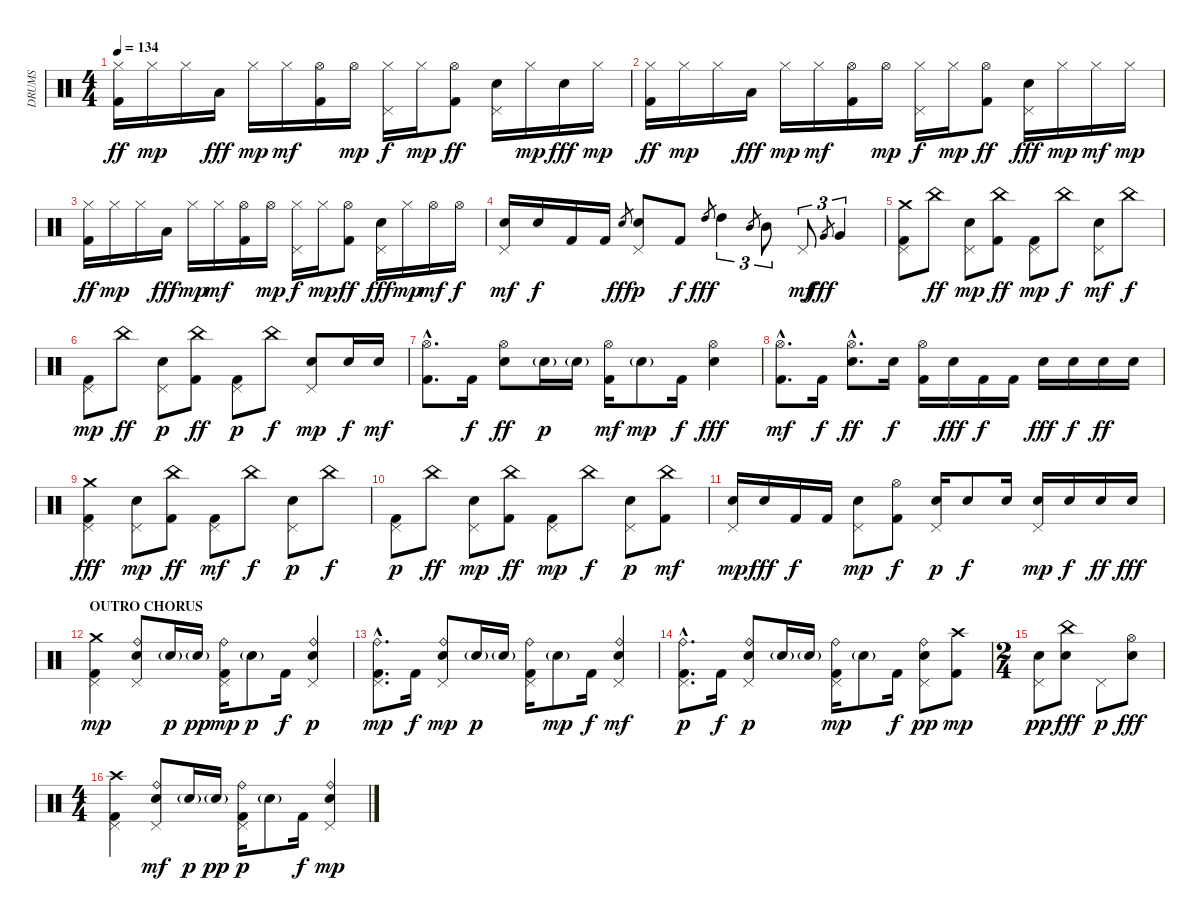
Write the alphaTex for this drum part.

\track ("DRUMS" "DRUMS") {instrument percussion}
\staff {score}
\articulation defaults
\ts (4 4)
\tempo 134
\clef neutral
\ks c
("Hi-Hat (closed)" "Kick (hit) 2").16{dy ff} "Hi-Hat (closed)".16{dy mp} "Hi-Hat (closed)".16 "Low Floor Tom (hit)".16{dy fff balance 0} "Hi-Hat (closed)".16{dy mp balance 8} "Hi-Hat (closed)".16{dy mf} ("Hi-Hat (open)" "Kick (hit) 2").16 "Hi-Hat (open)".16{dy mp} ("Hi-Hat (closed)" "Pedal Hi-Hat (hit)").16{dy f} "Hi-Hat (closed)".16{dy mp} ("Hi-Hat (open)" "Kick (hit) 2").8{dy ff} ("Electric Snare (hit)" "Pedal Hi-Hat (hit)").16 "Hi-Hat (closed)".16{dy mp} "Electric Snare (hit)".16{dy fff} "Hi-Hat (closed)".16{dy mp} |
("Hi-Hat (closed)" "Kick (hit) 2").16{dy ff} "Hi-Hat (closed)".16{dy mp} "Hi-Hat (closed)".16 "Low Floor Tom (hit)".16{dy fff balance 0} "Hi-Hat (closed)".16{dy mp balance 8} "Hi-Hat (closed)".16{dy mf} ("Hi-Hat (open)" "Kick (hit) 2").16 "Hi-Hat (open)".16{dy mp} ("Hi-Hat (closed)" "Pedal Hi-Hat (hit)").16{dy f} "Hi-Hat (closed)".16{dy mp} ("Hi-Hat (open)" "Kick (hit) 2").8{dy ff} ("Electric Snare (hit)" "Pedal Hi-Hat (hit)").16{dy fff} "Hi-Hat (closed)".16{dy mp} "Hi-Hat (closed)".16{dy mf} "Hi-Hat (closed)".16{dy mp} |
("Hi-Hat (closed)" "Kick (hit) 2").16{dy ff} "Hi-Hat (closed)".16{dy mp} "Hi-Hat (closed)".16 "Low Floor Tom (hit)".16{dy fff balance 0} "Hi-Hat (closed)".16{dy mp balance 8} "Hi-Hat (closed)".16{dy mf} ("Hi-Hat (open)" "Kick (hit) 2").16 "Hi-Hat (open)".16{dy mp} ("Hi-Hat (closed)" "Pedal Hi-Hat (hit)").16{dy f} "Hi-Hat (closed)".16{dy mp} ("Hi-Hat (open)" "Kick (hit) 2").8{dy ff} ("Electric Snare (hit)" "Pedal Hi-Hat (hit)").16{dy fff} "Hi-Hat (closed)".16{dy mp} "Hi-Hat (open)".16{dy mf} "Hi-Hat (open)".16{dy f} |
("Electric Snare (hit)" "Pedal Hi-Hat (hit)").16{dy mf} "Electric Snare (hit)".16{dy f} "Kick (hit) 2".16 "Kick (hit) 2".16 "Electric Snare (hit)"{sl}.8{gr dy fff} ("Electric Snare (hit)" "Pedal Hi-Hat (hit)").8{dy p} "Kick (hit) 2".8{dy f} "High Tom (hit)"{sl}.8{gr dy fff} "High Tom (hit)".4{tu (3 2)} "Mid Tom (hit)"{sl}.8{gr} "Mid Tom (hit)".8{tu (3 2)} "Pedal Hi-Hat (hit)".8{tu (3 2) dy mf} "Very Low Tom (hit)"{sl}.8{gr dy fff} "Very Low Tom (hit)".4{tu (3 2)} |
("Crash medium (hit)" "Pedal Hi-Hat (hit)" "Kick (hit) 2").8 "China (hit)".8{dy ff} ("Electric Snare (hit)" "Pedal Hi-Hat (hit)").8{dy mp} ("China (hit)" "Kick (hit) 2").8{dy ff} ("Pedal Hi-Hat (hit)" "Kick (hit) 2").8{dy mp} "China (hit)".8{dy f} ("Electric Snare (hit)" "Pedal Hi-Hat (hit)").8{dy mf} "China (hit)".8{dy f} |
("Pedal Hi-Hat (hit)" "Kick (hit) 2").8{dy mp} "China (hit)".8{dy ff} ("Electric Snare (hit)" "Pedal Hi-Hat (hit)").8{dy p} ("China (hit)" "Kick (hit) 2").8{dy ff} ("Pedal Hi-Hat (hit)" "Kick (hit) 2").8{dy p} "China (hit)".8{dy f} ("Electric Snare (hit)" "Pedal Hi-Hat (hit)").8{dy mp} "Electric Snare (hit)".16{dy f} "Electric Snare (hit)".16{dy mf} |
("Hi-Hat (open)"{hac} "Kick (hit) 2"{hac}).8{d} "Kick (hit) 2".16{dy f} ("Hi-Hat (open)" "Electric Snare (hit)").8{dy ff} "Electric Snare (hit)"{g}.16{dy p} "Electric Snare (hit)"{g}.16 ("Hi-Hat (open)" "Kick (hit) 2").16{dy mf} "Electric Snare (hit)"{g}.8{dy mp} "Kick (hit) 2".16{dy f} ("Hi-Hat (open)" "Electric Snare (hit)").4{dy fff} |
("Hi-Hat (open)"{hac} "Kick (hit) 2"{hac}).8{d dy mf} "Kick (hit) 2".16{dy f} ("Hi-Hat (open)"{hac} "Electric Snare (hit)"{hac}).8{d dy ff} "Electric Snare (hit)".16{dy f} ("Hi-Hat (open)" "Kick (hit) 2").16 "Electric Snare (hit)".16{dy fff} "Kick (hit) 2".16{dy f} "Kick (hit) 2".16 "Electric Snare (hit)".16{dy fff} "Electric Snare (hit)".16{dy f} "Electric Snare (hit)".16{dy ff} "Electric Snare (hit)".16 |
("Crash medium (hit)" "Pedal Hi-Hat (hit)" "Kick (hit) 2").4{dy fff} ("Electric Snare (hit)" "Pedal Hi-Hat (hit)").8{dy mp} ("China (hit)" "Kick (hit) 2").8{dy ff} ("Pedal Hi-Hat (hit)" "Kick (hit) 2").8{dy mf} "China (hit)".8{dy f} ("Electric Snare (hit)" "Pedal Hi-Hat (hit)").8{dy p} "China (hit)".8{dy f} |
("Pedal Hi-Hat (hit)" "Kick (hit) 2").8{dy p} "China (hit)".8{dy ff} ("Electric Snare (hit)" "Pedal Hi-Hat (hit)").8{dy mp} ("China (hit)" "Kick (hit) 2").8{dy ff} ("Pedal Hi-Hat (hit)" "Kick (hit) 2").8{dy mp} "China (hit)".8{dy f} ("Electric Snare (hit)" "Pedal Hi-Hat (hit)").8{dy p} ("China (hit)" "Kick (hit) 2").8{dy mf} |
("Electric Snare (hit)" "Pedal Hi-Hat (hit)").16{dy mp} "Electric Snare (hit)".16{dy fff} "Kick (hit) 2".16{dy f} "Kick (hit) 2".16 ("Electric Snare (hit)" "Pedal Hi-Hat (hit)").8{dy mp} ("Hi-Hat (open)" "Kick (hit) 2").8{dy f} ("Electric Snare (hit)" "Pedal Hi-Hat (hit)").16{dy p} "Electric Snare (hit)".8{dy f} "Electric Snare (hit)".16 ("Electric Snare (hit)" "Pedal Hi-Hat (hit)").16{dy mp} "Electric Snare (hit)".16{dy f} "Electric Snare (hit)".16{dy ff} "Electric Snare (hit)".16{dy fff} |
\section ("" "OUTRO CHORUS")
("Crash medium (hit)" "Pedal Hi-Hat (hit)" "Kick (hit) 2").4{dy mp} ("Ride (bell)" "Electric Snare (hit)" "Pedal Hi-Hat (hit)").8 "Electric Snare (hit)"{g}.16{dy p} "Electric Snare (hit)"{g}.16{dy pp} ("Ride (bell)" "Pedal Hi-Hat (hit)" "Kick (hit) 2").16{dy mp} "Electric Snare (hit)"{g}.8{dy p} "Kick (hit) 2".16{dy f} ("Ride (bell)" "Electric Snare (hit)" "Pedal Hi-Hat (hit)").4{dy p} |
("Ride (bell)"{hac} "Pedal Hi-Hat (hit)"{hac} "Kick (hit) 2"{hac}).8{d dy mp} "Kick (hit) 2".16{dy f} ("Ride (bell)" "Electric Snare (hit)" "Pedal Hi-Hat (hit)").8{dy mp} "Electric Snare (hit)"{g}.16{dy p} "Electric Snare (hit)"{g}.16 ("Ride (bell)" "Pedal Hi-Hat (hit)" "Kick (hit) 2").16 "Electric Snare (hit)"{g}.8{dy mp} "Kick (hit) 2".16{dy f} ("Ride (bell)" "Electric Snare (hit)" "Pedal Hi-Hat (hit)").4{dy mf} |
("Ride (bell)"{hac} "Pedal Hi-Hat (hit)"{hac} "Kick (hit) 2"{hac}).8{d dy p} "Kick (hit) 2".16{dy f} ("Ride (bell)" "Electric Snare (hit)" "Pedal Hi-Hat (hit)").8{dy p} "Electric Snare (hit)"{g}.16 "Electric Snare (hit)"{g}.16 ("Ride (bell)" "Pedal Hi-Hat (hit)" "Kick (hit) 2").16{dy mp} "Electric Snare (hit)"{g}.8 "Kick (hit) 2".16{dy f} ("Ride (bell)" "Electric Snare (hit)" "Pedal Hi-Hat (hit)").8{dy pp} ("Crash high (hit)" "Kick (hit) 2").8{dy mp} |
\ts (2 4)
("Electric Snare (hit)" "Pedal Hi-Hat (hit)").8{dy pp} ("China (hit)" "Electric Snare (hit)").8{dy fff} "Pedal Hi-Hat (hit)".8{dy p} ("Hi-Hat (open)" "Electric Snare (hit)").8{dy fff} |
\ts (4 4)
("Crash high (hit)" "Pedal Hi-Hat (hit)" "Kick (hit) 2").4 ("Ride (bell)" "Electric Snare (hit)" "Pedal Hi-Hat (hit)").8{dy mf} "Electric Snare (hit)"{g}.16{dy p} "Electric Snare (hit)"{g}.16{dy pp} ("Ride (bell)" "Pedal Hi-Hat (hit)" "Kick (hit) 2").16{dy p} "Electric Snare (hit)"{g}.8 "Kick (hit) 2".16{dy f} ("Ride (bell)" "Electric Snare (hit)" "Pedal Hi-Hat (hit)").4{dy mp}
